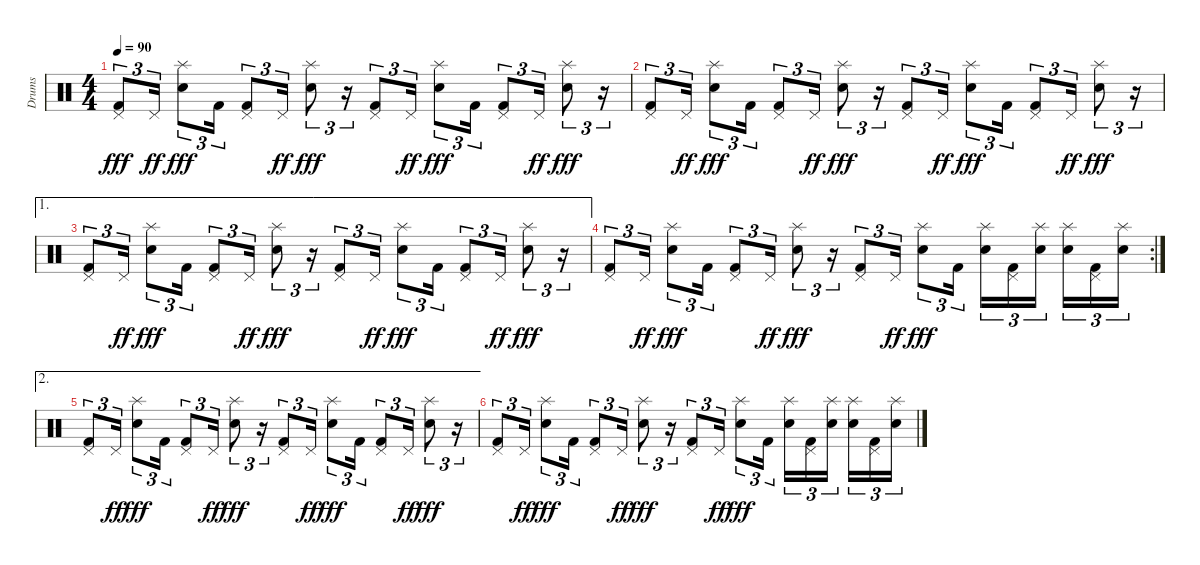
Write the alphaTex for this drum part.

\track ("Drums" "Drums") {instrument percussion}
\staff {score}
\articulation defaults
\ts (4 4)
\tempo 90
\clef neutral
\ks c
("Pedal Hi-Hat (hit)" "Kick (hit) 2").8{tu (3 2) dy fff} "Pedal Hi-Hat (hit)".16{tu (3 2) dy ff} ("Splash (hit)" "Snare (hit) 2").8{tu (3 2) dy fff} "Kick (hit) 2".16{tu (3 2)} ("Pedal Hi-Hat (hit)" "Kick (hit) 2").8{tu (3 2)} "Pedal Hi-Hat (hit)".16{tu (3 2) dy ff} ("Splash (hit)" "Snare (hit) 2").8{tu (3 2) dy fff} r.16{tu (3 2)} ("Pedal Hi-Hat (hit)" "Kick (hit) 2").8{tu (3 2)} "Pedal Hi-Hat (hit)".16{tu (3 2) dy ff} ("Splash (hit)" "Snare (hit) 2").8{tu (3 2) dy fff} "Kick (hit) 2".16{tu (3 2)} ("Pedal Hi-Hat (hit)" "Kick (hit) 2").8{tu (3 2)} "Pedal Hi-Hat (hit)".16{tu (3 2) dy ff} ("Splash (hit)" "Snare (hit) 2").8{tu (3 2) dy fff} r.16{tu (3 2)} |
("Pedal Hi-Hat (hit)" "Kick (hit) 2").8{tu (3 2)} "Pedal Hi-Hat (hit)".16{tu (3 2) dy ff} ("Splash (hit)" "Snare (hit) 2").8{tu (3 2) dy fff} "Kick (hit) 2".16{tu (3 2)} ("Pedal Hi-Hat (hit)" "Kick (hit) 2").8{tu (3 2)} "Pedal Hi-Hat (hit)".16{tu (3 2) dy ff} ("Splash (hit)" "Snare (hit) 2").8{tu (3 2) dy fff} r.16{tu (3 2)} ("Pedal Hi-Hat (hit)" "Kick (hit) 2").8{tu (3 2)} "Pedal Hi-Hat (hit)".16{tu (3 2) dy ff} ("Splash (hit)" "Snare (hit) 2").8{tu (3 2) dy fff} "Kick (hit) 2".16{tu (3 2)} ("Pedal Hi-Hat (hit)" "Kick (hit) 2").8{tu (3 2)} "Pedal Hi-Hat (hit)".16{tu (3 2) dy ff} ("Splash (hit)" "Snare (hit) 2").8{tu (3 2) dy fff} r.16{tu (3 2)} |
\ae 1
("Pedal Hi-Hat (hit)" "Kick (hit) 2").8{tu (3 2)} "Pedal Hi-Hat (hit)".16{tu (3 2) dy ff} ("Splash (hit)" "Snare (hit) 2").8{tu (3 2) dy fff} "Kick (hit) 2".16{tu (3 2)} ("Pedal Hi-Hat (hit)" "Kick (hit) 2").8{tu (3 2)} "Pedal Hi-Hat (hit)".16{tu (3 2) dy ff} ("Splash (hit)" "Snare (hit) 2").8{tu (3 2) dy fff} r.16{tu (3 2)} ("Pedal Hi-Hat (hit)" "Kick (hit) 2").8{tu (3 2)} "Pedal Hi-Hat (hit)".16{tu (3 2) dy ff} ("Splash (hit)" "Snare (hit) 2").8{tu (3 2) dy fff} "Kick (hit) 2".16{tu (3 2)} ("Pedal Hi-Hat (hit)" "Kick (hit) 2").8{tu (3 2)} "Pedal Hi-Hat (hit)".16{tu (3 2) dy ff} ("Splash (hit)" "Snare (hit) 2").8{tu (3 2) dy fff} r.16{tu (3 2)} |
\rc 2
("Pedal Hi-Hat (hit)" "Kick (hit) 2").8{tu (3 2)} "Pedal Hi-Hat (hit)".16{tu (3 2) dy ff} ("Splash (hit)" "Snare (hit) 2").8{tu (3 2) dy fff} "Kick (hit) 2".16{tu (3 2)} ("Pedal Hi-Hat (hit)" "Kick (hit) 2").8{tu (3 2)} "Pedal Hi-Hat (hit)".16{tu (3 2) dy ff} ("Splash (hit)" "Snare (hit) 2").8{tu (3 2) dy fff} r.16{tu (3 2)} ("Pedal Hi-Hat (hit)" "Kick (hit) 2").8{tu (3 2)} "Pedal Hi-Hat (hit)".16{tu (3 2) dy ff} ("Splash (hit)" "Snare (hit) 2").8{tu (3 2) dy fff} "Kick (hit) 2".16{tu (3 2)} ("Splash (hit)" "Snare (hit) 2").16{tu (3 2)} ("Pedal Hi-Hat (hit)" "Kick (hit) 2").16{tu (3 2)} ("Splash (hit)" "Snare (hit) 2").16{tu (3 2)} ("Splash (hit)" "Snare (hit) 2").16{tu (3 2)} ("Pedal Hi-Hat (hit)" "Kick (hit) 2").16{tu (3 2)} ("Splash (hit)" "Snare (hit) 2").16{tu (3 2)} |
\ae 2
("Pedal Hi-Hat (hit)" "Kick (hit) 2").8{tu (3 2) volume 0} "Pedal Hi-Hat (hit)".16{tu (3 2) dy ff} ("Splash (hit)" "Snare (hit) 2").8{tu (3 2) dy fff} "Kick (hit) 2".16{tu (3 2)} ("Pedal Hi-Hat (hit)" "Kick (hit) 2").8{tu (3 2)} "Pedal Hi-Hat (hit)".16{tu (3 2) dy ff} ("Splash (hit)" "Snare (hit) 2").8{tu (3 2) dy fff} r.16{tu (3 2)} ("Pedal Hi-Hat (hit)" "Kick (hit) 2").8{tu (3 2)} "Pedal Hi-Hat (hit)".16{tu (3 2) dy ff} ("Splash (hit)" "Snare (hit) 2").8{tu (3 2) dy fff} "Kick (hit) 2".16{tu (3 2)} ("Pedal Hi-Hat (hit)" "Kick (hit) 2").8{tu (3 2)} "Pedal Hi-Hat (hit)".16{tu (3 2) dy ff} ("Splash (hit)" "Snare (hit) 2").8{tu (3 2) dy fff} r.16{tu (3 2)} |
("Pedal Hi-Hat (hit)" "Kick (hit) 2").8{tu (3 2)} "Pedal Hi-Hat (hit)".16{tu (3 2) dy ff} ("Splash (hit)" "Snare (hit) 2").8{tu (3 2) dy fff} "Kick (hit) 2".16{tu (3 2)} ("Pedal Hi-Hat (hit)" "Kick (hit) 2").8{tu (3 2)} "Pedal Hi-Hat (hit)".16{tu (3 2) dy ff} ("Splash (hit)" "Snare (hit) 2").8{tu (3 2) dy fff} r.16{tu (3 2)} ("Pedal Hi-Hat (hit)" "Kick (hit) 2").8{tu (3 2)} "Pedal Hi-Hat (hit)".16{tu (3 2) dy ff} ("Splash (hit)" "Snare (hit) 2").8{tu (3 2) dy fff} "Kick (hit) 2".16{tu (3 2)} ("Splash (hit)" "Snare (hit) 2").16{tu (3 2)} ("Pedal Hi-Hat (hit)" "Kick (hit) 2").16{tu (3 2)} ("Splash (hit)" "Snare (hit) 2").16{tu (3 2)} ("Splash (hit)" "Snare (hit) 2").16{tu (3 2)} ("Pedal Hi-Hat (hit)" "Kick (hit) 2").16{tu (3 2)} ("Splash (hit)" "Snare (hit) 2").16{tu (3 2)}
